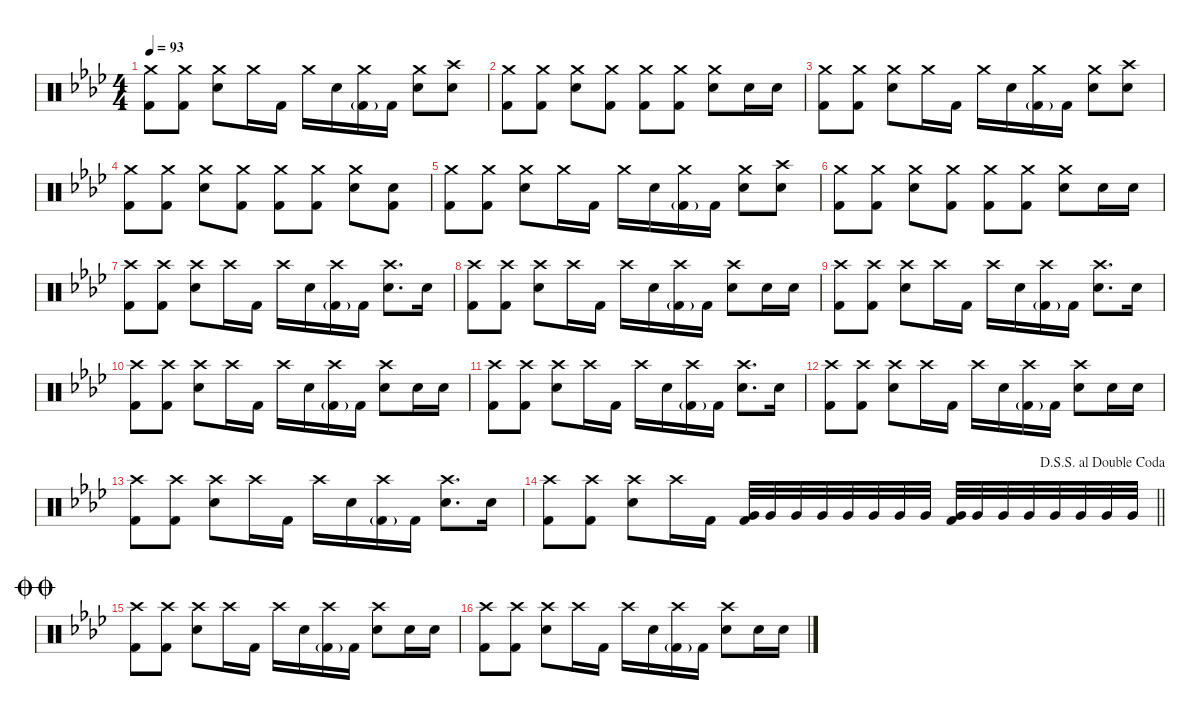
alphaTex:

\defaultSystemsLayout 4
\hideDynamics
\bracketExtendMode nobrackets
\singleTrackTrackNamePolicy hidden
\multiTrackTrackNamePolicy hidden
\firstSystemTrackNameMode fullname
\firstSystemTrackNameOrientation horizontal
\otherSystemsTrackNameOrientation horizontal
\track ("Drums" "drm.") {instrument percussion}
\staff {score}
\articulation defaults
\ts (4 4)
\tempo 93
\clef neutral
\ks ab
("Crash medium (hit)"{acc forcenatural} "Kick (hit) 2"{acc forcenatural}).8{dy f beam Down} ("Crash medium (hit)"{acc forcenatural} "Kick (hit) 2"{acc forcenatural}).8{beam Down} ("Crash medium (hit)"{acc forcenatural} "Snare (hit) 2"{acc forcenatural}).8{beam Down} "Crash medium (hit)"{acc forcenatural}.16{beam Down} "Kick (hit) 2"{acc forcenatural}.16{beam Down} "Crash medium (hit)"{acc forcenatural}.16{beam Down} "Snare (hit) 2"{acc forcenatural}.16{beam Down} ("Crash medium (hit)"{acc forcenatural} "Kick (hit) 2"{g acc forcenatural}).16{beam Down} "Kick (hit) 2"{acc forcenatural}.16{beam Down} ("Crash medium (hit)"{acc forcenatural} "Snare (hit) 2"{acc forcenatural}).8{beam Down} ("Crash high (hit)"{acc forcenatural} "Snare (hit) 2"{acc forcenatural}).8{beam Down} |
("Crash medium (hit)"{acc forcenatural} "Kick (hit) 2"{acc forcenatural}).8{beam Down} ("Crash medium (hit)"{acc forcenatural} "Kick (hit) 2"{acc forcenatural}).8{beam Down} ("Crash medium (hit)"{acc forcenatural} "Snare (hit) 2"{acc forcenatural}).8{beam Down} ("Crash medium (hit)"{acc forcenatural} "Kick (hit) 2"{acc forcenatural}).8{beam Down} ("Crash medium (hit)"{acc forcenatural} "Kick (hit) 2"{acc forcenatural}).8{beam Down} ("Crash medium (hit)"{acc forcenatural} "Kick (hit) 2"{acc forcenatural}).8{beam Down} ("Crash medium (hit)"{acc forcenatural} "Snare (hit) 2"{acc forcenatural}).8{beam Down} "Snare (hit) 2"{acc forcenatural}.16{beam Down} "Snare (hit) 2"{acc forcenatural}.16{beam Down} |
("Crash medium (hit)"{acc forcenatural} "Kick (hit) 2"{acc forcenatural}).8{beam Down} ("Crash medium (hit)"{acc forcenatural} "Kick (hit) 2"{acc forcenatural}).8{beam Down} ("Crash medium (hit)"{acc forcenatural} "Snare (hit) 2"{acc forcenatural}).8{beam Down} "Crash medium (hit)"{acc forcenatural}.16{beam Down} "Kick (hit) 2"{acc forcenatural}.16{beam Down} "Crash medium (hit)"{acc forcenatural}.16{beam Down} "Snare (hit) 2"{acc forcenatural}.16{beam Down} ("Crash medium (hit)"{acc forcenatural} "Kick (hit) 2"{g acc forcenatural}).16{beam Down} "Kick (hit) 2"{acc forcenatural}.16{beam Down} ("Crash medium (hit)"{acc forcenatural} "Snare (hit) 2"{acc forcenatural}).8{beam Down} ("Crash high (hit)"{acc forcenatural} "Snare (hit) 2"{acc forcenatural}).8{beam Down} |
("Crash medium (hit)"{acc forcenatural} "Kick (hit) 2"{acc forcenatural}).8{beam Down} ("Crash medium (hit)"{acc forcenatural} "Kick (hit) 2"{acc forcenatural}).8{beam Down} ("Crash medium (hit)"{acc forcenatural} "Snare (hit) 2"{acc forcenatural}).8{beam Down} ("Crash medium (hit)"{acc forcenatural} "Kick (hit) 2"{acc forcenatural}).8{beam Down} ("Crash medium (hit)"{acc forcenatural} "Kick (hit) 2"{acc forcenatural}).8{beam Down} ("Crash medium (hit)"{acc forcenatural} "Kick (hit) 2"{acc forcenatural}).8{beam Down} ("Crash medium (hit)"{acc forcenatural} "Snare (hit) 2"{acc forcenatural}).8{beam Down} ("Snare (hit) 2"{acc forcenatural} "Kick (hit) 2"{acc forcenatural}).8{beam Down} |
("Crash medium (hit)"{acc forcenatural} "Kick (hit) 2"{acc forcenatural}).8{beam Down} ("Crash medium (hit)"{acc forcenatural} "Kick (hit) 2"{acc forcenatural}).8{beam Down} ("Crash medium (hit)"{acc forcenatural} "Snare (hit) 2"{acc forcenatural}).8{beam Down} "Crash medium (hit)"{acc forcenatural}.16{beam Down} "Kick (hit) 2"{acc forcenatural}.16{beam Down} "Crash medium (hit)"{acc forcenatural}.16{beam Down} "Snare (hit) 2"{acc forcenatural}.16{beam Down} ("Crash medium (hit)"{acc forcenatural} "Kick (hit) 2"{g acc forcenatural}).16{beam Down} "Kick (hit) 2"{acc forcenatural}.16{beam Down} ("Crash medium (hit)"{acc forcenatural} "Snare (hit) 2"{acc forcenatural}).8{beam Down} ("Crash high (hit)"{acc forcenatural} "Snare (hit) 2"{acc forcenatural}).8{beam Down} |
("Crash medium (hit)"{acc forcenatural} "Kick (hit) 2"{acc forcenatural}).8{beam Down} ("Crash medium (hit)"{acc forcenatural} "Kick (hit) 2"{acc forcenatural}).8{beam Down} ("Crash medium (hit)"{acc forcenatural} "Snare (hit) 2"{acc forcenatural}).8{beam Down} ("Crash medium (hit)"{acc forcenatural} "Kick (hit) 2"{acc forcenatural}).8{beam Down} ("Crash medium (hit)"{acc forcenatural} "Kick (hit) 2"{acc forcenatural}).8{beam Down} ("Crash medium (hit)"{acc forcenatural} "Kick (hit) 2"{acc forcenatural}).8{beam Down} ("Crash medium (hit)"{acc forcenatural} "Snare (hit) 2"{acc forcenatural}).8{beam Down} "Snare (hit) 2"{acc forcenatural}.16{beam Down} "Snare (hit) 2"{acc forcenatural}.16{beam Down} |
("Crash high (hit)"{acc forcenatural} "Kick (hit) 2"{acc forcenatural}).8{beam Down} ("Crash high (hit)"{acc forcenatural} "Kick (hit) 2"{acc forcenatural}).8{beam Down} ("Crash high (hit)"{acc forcenatural} "Snare (hit) 2"{acc forcenatural}).8{beam Down} "Crash high (hit)"{acc forcenatural}.16{beam Down} "Kick (hit) 2"{acc forcenatural}.16{beam Down} "Crash high (hit)"{acc forcenatural}.16{beam Down} "Snare (hit) 2"{acc forcenatural}.16{beam Down} ("Crash high (hit)"{acc forcenatural} "Kick (hit) 2"{g acc forcenatural}).16{beam Down} "Kick (hit) 2"{acc forcenatural}.16{beam Down} ("Crash high (hit)"{acc forcenatural} "Snare (hit) 2"{acc forcenatural}).8{d beam Down} "Snare (hit) 2"{acc forcenatural}.16{beam Down} |
("Crash high (hit)"{acc forcenatural} "Kick (hit) 2"{acc forcenatural}).8{beam Down} ("Crash high (hit)"{acc forcenatural} "Kick (hit) 2"{acc forcenatural}).8{beam Down} ("Crash high (hit)"{acc forcenatural} "Snare (hit) 2"{acc forcenatural}).8{beam Down} "Crash high (hit)"{acc forcenatural}.16{beam Down} "Kick (hit) 2"{acc forcenatural}.16{beam Down} "Crash high (hit)"{acc forcenatural}.16{beam Down} "Snare (hit) 2"{acc forcenatural}.16{beam Down} ("Crash high (hit)"{acc forcenatural} "Kick (hit) 2"{g acc forcenatural}).16{beam Down} "Kick (hit) 2"{acc forcenatural}.16{beam Down} ("Crash high (hit)"{acc forcenatural} "Snare (hit) 2"{acc forcenatural}).8{beam Down} "Snare (hit) 2"{acc forcenatural}.16{beam Down} "Snare (hit) 2"{acc forcenatural}.16{beam Down} |
("Crash high (hit)"{acc forcenatural} "Kick (hit) 2"{acc forcenatural}).8{beam Down} ("Crash high (hit)"{acc forcenatural} "Kick (hit) 2"{acc forcenatural}).8{beam Down} ("Crash high (hit)"{acc forcenatural} "Snare (hit) 2"{acc forcenatural}).8{beam Down} "Crash high (hit)"{acc forcenatural}.16{beam Down} "Kick (hit) 2"{acc forcenatural}.16{beam Down} "Crash high (hit)"{acc forcenatural}.16{beam Down} "Snare (hit) 2"{acc forcenatural}.16{beam Down} ("Crash high (hit)"{acc forcenatural} "Kick (hit) 2"{g acc forcenatural}).16{beam Down} "Kick (hit) 2"{acc forcenatural}.16{beam Down} ("Crash high (hit)"{acc forcenatural} "Snare (hit) 2"{acc forcenatural}).8{d beam Down} "Snare (hit) 2"{acc forcenatural}.16{beam Down} |
("Crash high (hit)"{acc forcenatural} "Kick (hit) 2"{acc forcenatural}).8{beam Down} ("Crash high (hit)"{acc forcenatural} "Kick (hit) 2"{acc forcenatural}).8{beam Down} ("Crash high (hit)"{acc forcenatural} "Snare (hit) 2"{acc forcenatural}).8{beam Down} "Crash high (hit)"{acc forcenatural}.16{beam Down} "Kick (hit) 2"{acc forcenatural}.16{beam Down} "Crash high (hit)"{acc forcenatural}.16{beam Down} "Snare (hit) 2"{acc forcenatural}.16{beam Down} ("Crash high (hit)"{acc forcenatural} "Kick (hit) 2"{g acc forcenatural}).16{beam Down} "Kick (hit) 2"{acc forcenatural}.16{beam Down} ("Crash high (hit)"{acc forcenatural} "Snare (hit) 2"{acc forcenatural}).8{beam Down} "Snare (hit) 2"{acc forcenatural}.16{beam Down} "Snare (hit) 2"{acc forcenatural}.16{beam Down} |
("Crash high (hit)"{acc forcenatural} "Kick (hit) 2"{acc forcenatural}).8{beam Down} ("Crash high (hit)"{acc forcenatural} "Kick (hit) 2"{acc forcenatural}).8{beam Down} ("Crash high (hit)"{acc forcenatural} "Snare (hit) 2"{acc forcenatural}).8{beam Down} "Crash high (hit)"{acc forcenatural}.16{beam Down} "Kick (hit) 2"{acc forcenatural}.16{beam Down} "Crash high (hit)"{acc forcenatural}.16{beam Down} "Snare (hit) 2"{acc forcenatural}.16{beam Down} ("Crash high (hit)"{acc forcenatural} "Kick (hit) 2"{g acc forcenatural}).16{beam Down} "Kick (hit) 2"{acc forcenatural}.16{beam Down} ("Crash high (hit)"{acc forcenatural} "Snare (hit) 2"{acc forcenatural}).8{d beam Down} "Snare (hit) 2"{acc forcenatural}.16{beam Down} |
("Crash high (hit)"{acc forcenatural} "Kick (hit) 2"{acc forcenatural}).8{beam Down} ("Crash high (hit)"{acc forcenatural} "Kick (hit) 2"{acc forcenatural}).8{beam Down} ("Crash high (hit)"{acc forcenatural} "Snare (hit) 2"{acc forcenatural}).8{beam Down} "Crash high (hit)"{acc forcenatural}.16{beam Down} "Kick (hit) 2"{acc forcenatural}.16{beam Down} "Crash high (hit)"{acc forcenatural}.16{beam Down} "Snare (hit) 2"{acc forcenatural}.16{beam Down} ("Crash high (hit)"{acc forcenatural} "Kick (hit) 2"{g acc forcenatural}).16{beam Down} "Kick (hit) 2"{acc forcenatural}.16{beam Down} ("Crash high (hit)"{acc forcenatural} "Snare (hit) 2"{acc forcenatural}).8{beam Down} "Snare (hit) 2"{acc forcenatural}.16{beam Down} "Snare (hit) 2"{acc forcenatural}.16{beam Down} |
("Crash high (hit)"{acc forcenatural} "Kick (hit) 2"{acc forcenatural}).8{beam Down} ("Crash high (hit)"{acc forcenatural} "Kick (hit) 2"{acc forcenatural}).8{beam Down} ("Crash high (hit)"{acc forcenatural} "Snare (hit) 2"{acc forcenatural}).8{beam Down} "Crash high (hit)"{acc forcenatural}.16{beam Down} "Kick (hit) 2"{acc forcenatural}.16{beam Down} "Crash high (hit)"{acc forcenatural}.16{beam Down} "Snare (hit) 2"{acc forcenatural}.16{beam Down} ("Crash high (hit)"{acc forcenatural} "Kick (hit) 2"{g acc forcenatural}).16{beam Down} "Kick (hit) 2"{acc forcenatural}.16{beam Down} ("Crash high (hit)"{acc forcenatural} "Snare (hit) 2"{acc forcenatural}).8{d beam Down} "Snare (hit) 2"{acc forcenatural}.16{beam Down} |
\jump dalsegnosegnoaldoublecoda
\barLineRight lightlight
("Crash high (hit)"{acc forcenatural} "Kick (hit) 2"{acc forcenatural}).8{beam Down} ("Crash high (hit)"{acc forcenatural} "Kick (hit) 2"{acc forcenatural}).8{beam Down} ("Crash high (hit)"{acc forcenatural} "Snare (hit) 2"{acc forcenatural}).8{beam Down} "Crash high (hit)"{acc forcenatural}.16{beam Down} "Kick (hit) 2"{acc forcenatural}.16{beam Down} ("Very Low Tom (hit)"{acc forcenatural} "Kick (hit) 2"{acc forcenatural}).32{beam Up} "Very Low Tom (hit)"{acc forcenatural}.32{beam Up} "Very Low Tom (hit)"{acc forcenatural}.32{beam Up} "Very Low Tom (hit)"{acc forcenatural}.32{beam Up} "Very Low Tom (hit)"{acc forcenatural}.32{beam Up} "Very Low Tom (hit)"{acc forcenatural}.32{beam Up} "Very Low Tom (hit)"{acc forcenatural}.32{beam Up} "Very Low Tom (hit)"{acc forcenatural}.32{beam Up} ("Very Low Tom (hit)"{acc forcenatural} "Kick (hit) 2"{acc forcenatural}).32{beam Up} "Very Low Tom (hit)"{acc forcenatural}.32{beam Up} "Very Low Tom (hit)"{acc forcenatural}.32{beam Up} "Very Low Tom (hit)"{acc forcenatural}.32{beam Up} "Very Low Tom (hit)"{acc forcenatural}.32{beam Up} "Very Low Tom (hit)"{acc forcenatural}.32{beam Up} "Very Low Tom (hit)"{acc forcenatural}.32{beam Up} "Very Low Tom (hit)"{acc forcenatural}.32{beam Up} |
\jump doublecoda
("Crash high (hit)"{acc forcenatural} "Kick (hit) 2"{acc forcenatural}).8{beam Down} ("Crash high (hit)"{acc forcenatural} "Kick (hit) 2"{acc forcenatural}).8{beam Down} ("Crash high (hit)"{acc forcenatural} "Snare (hit) 2"{acc forcenatural}).8{beam Down} "Crash high (hit)"{acc forcenatural}.16{beam Down} "Kick (hit) 2"{acc forcenatural}.16{beam Down} "Crash high (hit)"{acc forcenatural}.16{beam Down} "Snare (hit) 2"{acc forcenatural}.16{beam Down} ("Crash high (hit)"{acc forcenatural} "Kick (hit) 2"{g acc forcenatural}).16{beam Down} "Kick (hit) 2"{acc forcenatural}.16{beam Down} ("Crash high (hit)"{acc forcenatural} "Snare (hit) 2"{acc forcenatural}).8{beam Down} "Snare (hit) 2"{acc forcenatural}.16{beam Down} "Snare (hit) 2"{acc forcenatural}.16{beam Down} |
("Crash high (hit)"{acc forcenatural} "Kick (hit) 2"{acc forcenatural}).8{beam Down} ("Crash high (hit)"{acc forcenatural} "Kick (hit) 2"{acc forcenatural}).8{beam Down} ("Crash high (hit)"{acc forcenatural} "Snare (hit) 2"{acc forcenatural}).8{beam Down} "Crash high (hit)"{acc forcenatural}.16{beam Down} "Kick (hit) 2"{acc forcenatural}.16{beam Down} "Crash high (hit)"{acc forcenatural}.16{beam Down} "Snare (hit) 2"{acc forcenatural}.16{beam Down} ("Crash high (hit)"{acc forcenatural} "Kick (hit) 2"{g acc forcenatural}).16{beam Down} "Kick (hit) 2"{acc forcenatural}.16{beam Down} ("Crash high (hit)"{acc forcenatural} "Snare (hit) 2"{acc forcenatural}).8{beam Down} "Snare (hit) 2"{acc forcenatural}.16{beam Down} "Snare (hit) 2"{acc forcenatural}.16{beam Down}
